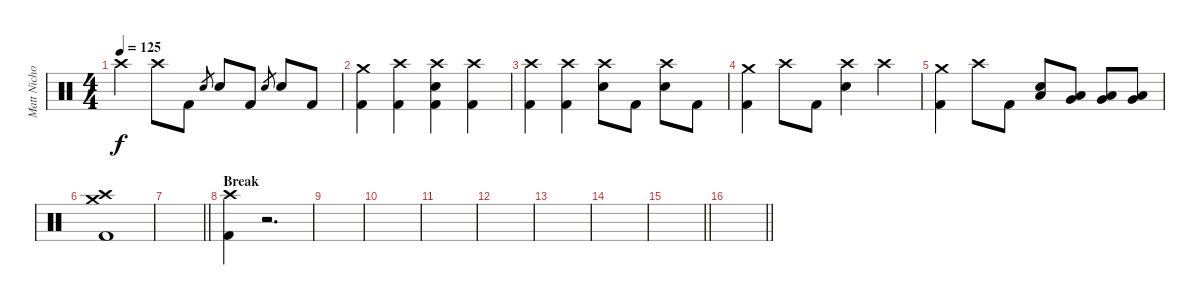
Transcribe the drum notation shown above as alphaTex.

\track ("Matt Nicholls" "Matt Nicho") {instrument percussion}
\staff {score}
\articulation defaults
\ts (4 4)
\tempo 125
\clef neutral
\ks c "Crash high (hit)".4{dy f} "Crash high (hit)".8 "Kick (hit) 2".8 "Electric Snare (hit)".8{gr} "Electric Snare (hit)".8 "Kick (hit) 2".8 "Electric Snare (hit)".8{gr} "Electric Snare (hit)".8 "Kick (hit) 2".8
|
("Crash medium (hit)" "Kick (hit) 2").4 ("Crash high (hit)" "Kick (hit) 2").4 ("Crash high (hit)" "Electric Snare (hit)" "Kick (hit) 2").4 ("Crash high (hit)" "Kick (hit) 2").4 |
("Crash high (hit)" "Kick (hit) 2").4 ("Crash high (hit)" "Kick (hit) 2").4 ("Crash high (hit)" "Electric Snare (hit)").8 "Kick (hit) 2".8 ("Crash high (hit)" "Electric Snare (hit)").8 "Kick (hit) 2".8 |
("Crash medium (hit)" "Kick (hit) 2").4 "Crash high (hit)".8 "Kick (hit) 2".8 ("Crash high (hit)" "Electric Snare (hit)").4 "Crash high (hit)".4 |
("Crash medium (hit)" "Kick (hit) 2").4 "Crash high (hit)".8 "Kick (hit) 2".8 ("Electric Snare (hit)" "Low Floor Tom (hit)").8 ("Very Low Tom (hit)" "Low Floor Tom (hit)").8 ("Very Low Tom (hit)" "Low Floor Tom (hit)").8 ("Very Low Tom (hit)" "Low Floor Tom (hit)").8 |
("Crash medium (hit)" "Crash high (hit)" "Kick (hit) 2").1 |
\barLineRight lightlight
|
\section ("" "Break")
("Crash high (hit)" "Kick (hit) 2").4 r.2{d volume 0} |
|
|
|
|
|
|
\barLineRight lightlight
|
\barLineRight lightlight
